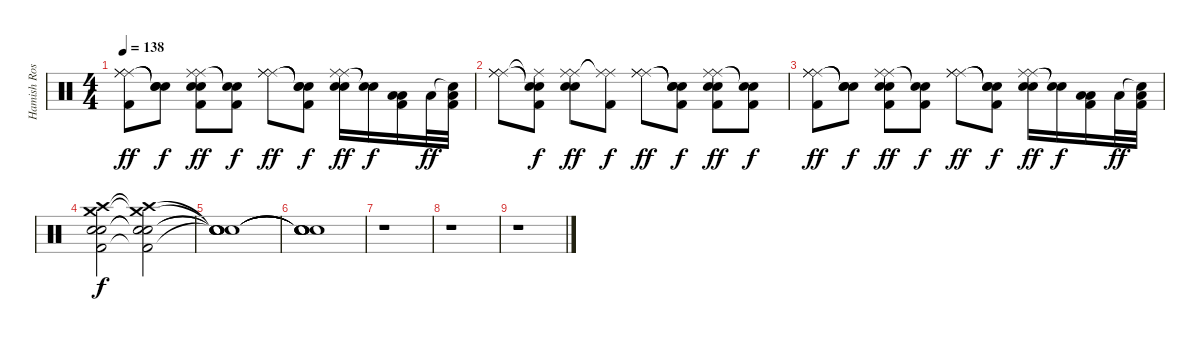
\track ("Hamish Rosser" "Hamish Ros") {instrument percussion}
\staff {score}
\articulation defaults
\ts (4 4)
\tempo 138
\clef neutral
\ks c
("Ride (middle)" "Ride (middle)" "Ride (middle)" "Kick (hit) 2").8{dy ff} ("Snare (hit)"{t} "Snare (hit)"{t} "Snare (hit)"{t}).8{dy f} ("Ride (middle)" "Ride (middle)" "Snare (hit) 2" "Snare (hit) 2" "Kick (hit) 2").8{dy ff} ("Snare (hit)"{t} "Snare (hit)"{t} "Kick (hit) 2").8{dy f} ("Ride (middle)" "Ride (middle)" "Ride (middle)").8{dy ff} ("Snare (hit)"{t} "Snare (hit)"{t} "Snare (hit) 2"{t} "Kick (hit) 2").8{dy f} ("Ride (middle)" "Ride (middle)" "Snare (hit) 2" "Snare (hit) 2").16{dy ff} ("Snare (hit)"{t} "Snare (hit)"{t}).16{dy f} ("Low Tom (hit)" "Low Tom (hit)" "Kick (hit) 2").16 "Low Tom (hit)".32{dy ff} ("Snare (hit)"{t} "Low Tom (hit)" "Kick (hit) 2").32 |
("Ride (middle)" "Ride (middle)" "Ride (middle)").8 ("Snare (hit)"{t} "Snare (hit)"{t} "Ride (middle)"{t} "Kick (hit) 2").8{dy f} ("Ride (middle)" "Ride (middle)" "Snare (hit) 2" "Snare (hit) 2").8{dy ff} ("Ride (middle)"{t} "Ride (middle)"{t} "Kick (hit) 2").8{dy f} ("Ride (middle)" "Ride (middle)" "Ride (middle)").8{dy ff} ("Snare (hit)"{t} "Snare (hit)"{t} "Snare (hit) 2"{t} "Kick (hit) 2").8{dy f} ("Ride (middle)" "Ride (middle)" "Snare (hit) 2" "Snare (hit) 2" "Kick (hit) 2").8{dy ff} ("Snare (hit)"{t} "Snare (hit)"{t} "Kick (hit) 2").8{dy f} |
("Ride (middle)" "Ride (middle)" "Ride (middle)" "Kick (hit) 2").8{dy ff} ("Snare (hit)"{t} "Snare (hit)"{t} "Snare (hit)"{t}).8{dy f} ("Ride (middle)" "Ride (middle)" "Snare (hit) 2" "Snare (hit) 2" "Kick (hit) 2").8{dy ff} ("Snare (hit)"{t} "Snare (hit)"{t} "Kick (hit) 2").8{dy f} ("Ride (middle)" "Ride (middle)" "Ride (middle)").8{dy ff} ("Snare (hit)"{t} "Snare (hit)"{t} "Snare (hit) 2"{t} "Kick (hit) 2").8{dy f} ("Ride (middle)" "Ride (middle)" "Snare (hit) 2" "Snare (hit) 2").16{dy ff} ("Snare (hit)"{t} "Snare (hit)"{t}).16{dy f} ("Low Tom (hit)" "Low Tom (hit)" "Kick (hit) 2").16 "Low Tom (hit)".32{dy ff} ("Snare (hit)"{t} "Low Tom (hit)" "Kick (hit) 2").32 |
("Crash high (hit)" "Crash medium (hit)" "Snare (hit) 2" "Snare (hit) 2" "Kick (hit) 2").2{dy f} ("Crash high (hit)"{t} "Crash medium (hit)"{t} "Snare (hit) 2"{t} "Snare (hit) 2"{t} "Kick (hit) 2"{t}).2 |
("Snare (hit)"{t} "Snare (hit)"{t} "Snare (hit)"{t} "Snare (hit)"{t} "Snare (hit)"{t}).1 |
("Snare (hit)"{t} "Snare (hit)"{t} "Snare (hit)"{t} "Snare (hit)"{t} "Snare (hit)"{t}).1 |
r.1 |
r.1 |
r.1
